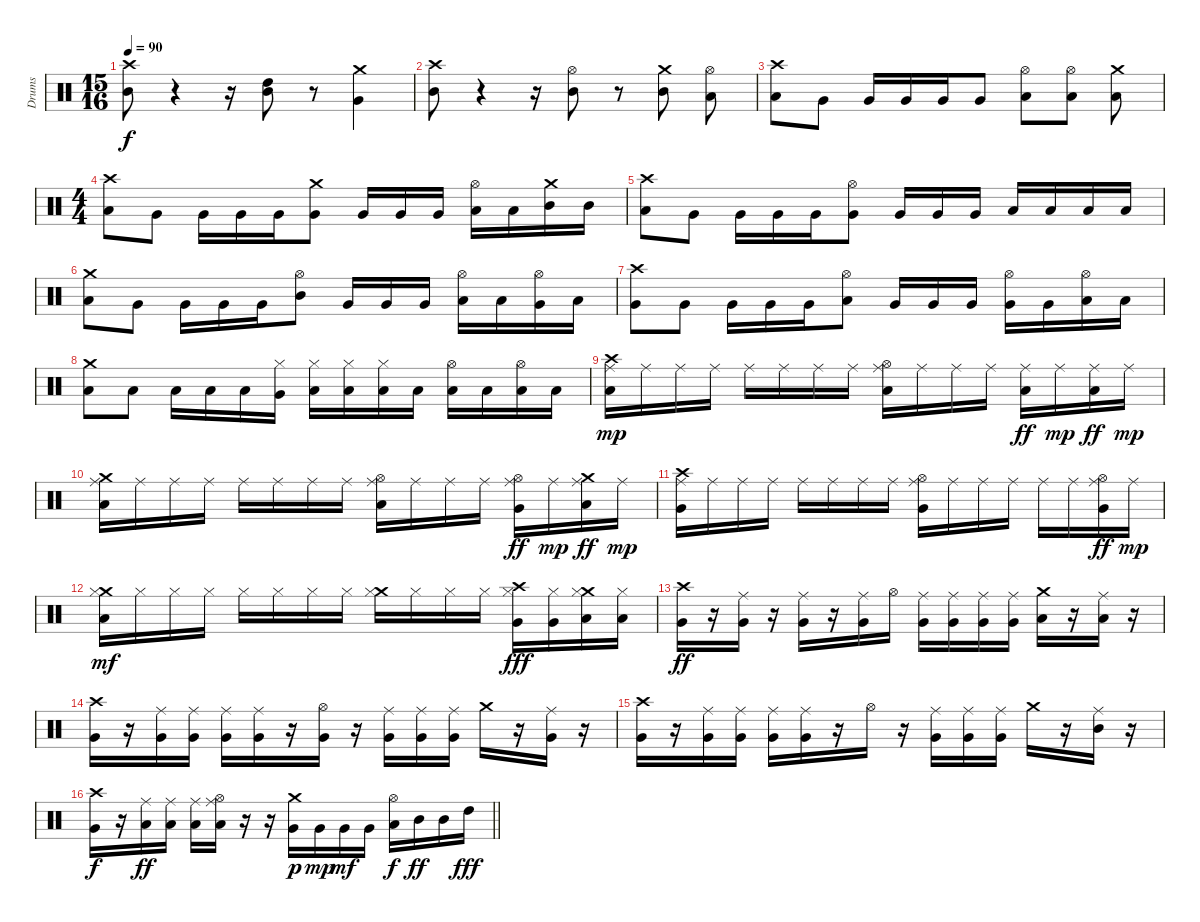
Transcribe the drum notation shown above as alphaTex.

\track ("Drums" "Drums") {instrument percussion}
\staff {score}
\articulation defaults
\ts (15 16)
\section ("" "")
\tempo 90
\clef neutral
\ks c
("Crash high (hit)" "Mid Tom (hit)").8{dy f} r.4 r.16 ("High Tom (hit)" "Mid Tom (hit)").8 r.8 ("Crash medium (hit)" "Very Low Tom (hit)").4 |
("Crash high (hit)" "Mid Tom (hit)").8 r.4 r.16 ("Hi-Hat (open)" "Mid Tom (hit)").8 r.8 ("Crash medium (hit)" "Mid Tom (hit)").8 ("Hi-Hat (open)" "Low Tom (hit)").8 |
("Crash high (hit)" "Low Tom (hit)").8 "Very Low Tom (hit)".8 "Very Low Tom (hit)".16 "Very Low Tom (hit)".16 "Very Low Tom (hit)".16 "Very Low Tom (hit)".8 ("Hi-Hat (open)" "Low Tom (hit)").8 ("Hi-Hat (open)" "Low Tom (hit)").8 ("Crash medium (hit)" "Low Tom (hit)").8 |
\ts (4 4)
("Crash high (hit)" "Low Tom (hit)").8 "Very Low Tom (hit)".8 "Very Low Tom (hit)".16 "Very Low Tom (hit)".16 "Very Low Tom (hit)".16 ("Crash medium (hit)" "Very Low Tom (hit)").8 "Very Low Tom (hit)".16 "Very Low Tom (hit)".16 "Very Low Tom (hit)".16 ("Hi-Hat (open)" "Low Tom (hit)").16 "Low Tom (hit)".16 ("Crash medium (hit)" "Mid Tom (hit)").16 "Mid Tom (hit)".16 |
("Crash high (hit)" "Low Tom (hit)").8 "Very Low Tom (hit)".8 "Very Low Tom (hit)".16 "Very Low Tom (hit)".16 "Very Low Tom (hit)".16 ("Hi-Hat (open)" "Very Low Tom (hit)").8 "Very Low Tom (hit)".16 "Very Low Tom (hit)".16 "Very Low Tom (hit)".16 "Low Tom (hit)".16 "Low Tom (hit)".16 "Low Tom (hit)".16 "Low Tom (hit)".16 |
("Crash medium (hit)" "Low Tom (hit)").8 "Very Low Tom (hit)".8 "Very Low Tom (hit)".16 "Very Low Tom (hit)".16 "Very Low Tom (hit)".16 ("Hi-Hat (open)" "Mid Tom (hit)").8 "Very Low Tom (hit)".16 "Very Low Tom (hit)".16 "Very Low Tom (hit)".16 ("Hi-Hat (open)" "Low Tom (hit)").16 "Low Tom (hit)".16 ("Hi-Hat (open)" "Very Low Tom (hit)").16 "Low Floor Tom (hit)".16 |
("Crash high (hit)" "Very Low Tom (hit)").8 "Very Low Tom (hit)".8 "Very Low Tom (hit)".16 "Very Low Tom (hit)".16 "Very Low Tom (hit)".16 ("Hi-Hat (open)" "Low Tom (hit)").8 "Very Low Tom (hit)".16 "Very Low Tom (hit)".16 "Very Low Tom (hit)".16 ("Hi-Hat (open)" "Very Low Tom (hit)").16 "Very Low Tom (hit)".16 ("Hi-Hat (open)" "Low Floor Tom (hit)").16 "Low Floor Tom (hit)".16 |
("Crash medium (hit)" "Low Floor Tom (hit)").8 "Low Floor Tom (hit)".8 "Low Floor Tom (hit)".16 "Low Floor Tom (hit)".16 "Low Floor Tom (hit)".16 ("Hi-Hat (closed)" "Very Low Tom (hit)").16 ("Hi-Hat (closed)" "Low Floor Tom (hit)").16 ("Hi-Hat (closed)" "Low Floor Tom (hit)").16 ("Hi-Hat (closed)" "Low Floor Tom (hit)").16 "Low Floor Tom (hit)".16 ("Hi-Hat (open)" "Low Floor Tom (hit)").16 "Low Floor Tom (hit)".16 ("Hi-Hat (open)" "Low Floor Tom (hit)").16 "Low Floor Tom (hit)".16 |
("Crash high (hit)" "Ride (middle)" "Low Tom (hit)").16{dy mp} "Ride (middle)".16 "Ride (middle)".16 "Ride (middle)".16 "Ride (middle)".16 "Ride (middle)".16 "Ride (middle)".16 "Ride (middle)".16 ("Hi-Hat (open)" "Ride (middle)" "Low Tom (hit)").16 "Ride (middle)".16 "Ride (middle)".16 "Ride (middle)".16 ("Ride (middle)" "Low Tom (hit)").16{dy ff} "Ride (middle)".16{dy mp} ("Ride (middle)" "Low Tom (hit)").16{dy ff} "Ride (middle)".16{dy mp} |
("Crash medium (hit)" "Ride (middle)" "Low Tom (hit)").16 "Ride (middle)".16 "Ride (middle)".16 "Ride (middle)".16 "Ride (middle)".16 "Ride (middle)".16 "Ride (middle)".16 "Ride (middle)".16 ("Hi-Hat (open)" "Ride (middle)" "Low Tom (hit)").16 "Ride (middle)".16 "Ride (middle)".16 "Ride (middle)".16 ("Hi-Hat (open)" "Ride (middle)" "Very Low Tom (hit)").16{dy ff} "Ride (middle)".16{dy mp} ("Crash medium (hit)" "Ride (middle)" "Low Floor Tom (hit)").16{dy ff} "Ride (middle)".16{dy mp} |
("Crash high (hit)" "Ride (middle)" "Very Low Tom (hit)").16 "Ride (middle)".16 "Ride (middle)".16 "Ride (middle)".16 "Ride (middle)".16 "Ride (middle)".16 "Ride (middle)".16 "Ride (middle)".16 ("Hi-Hat (open)" "Ride (middle)" "Very Low Tom (hit)").16 "Ride (middle)".16 "Ride (middle)".16 "Ride (middle)".16 "Ride (middle)".16 "Ride (middle)".16 ("Hi-Hat (open)" "Ride (middle)" "Very Low Tom (hit)").16{dy ff} "Ride (middle)".16{dy mp} |
("Crash medium (hit)" "Hi-Hat (closed)" "Low Floor Tom (hit)").16{dy mf} "Hi-Hat (closed)".16 "Hi-Hat (closed)".16 "Hi-Hat (closed)".16 "Hi-Hat (closed)".16 "Hi-Hat (closed)".16 "Hi-Hat (closed)".16 "Hi-Hat (closed)".16 ("Crash medium (hit)" "Hi-Hat (closed)").16 "Hi-Hat (closed)".16 "Hi-Hat (closed)".16 "Hi-Hat (closed)".16 ("Crash high (hit)" "Hi-Hat (closed)" "Very Low Tom (hit)").16{dy fff} ("Hi-Hat (closed)" "Very Low Tom (hit)").16 ("Crash medium (hit)" "Hi-Hat (closed)" "Low Floor Tom (hit)").16 ("Hi-Hat (closed)" "Low Floor Tom (hit)").16 |
("Crash high (hit)" "Very Low Tom (hit)").16{dy ff} r.16 ("Ride (middle)" "Very Low Tom (hit)").16 r.16 ("Ride (middle)" "Very Low Tom (hit)").16 r.16 ("Ride (middle)" "Very Low Tom (hit)").16 "Hi-Hat (open)".16 ("Ride (middle)" "Very Low Tom (hit)").16 ("Ride (middle)" "Very Low Tom (hit)").16 ("Ride (middle)" "Very Low Tom (hit)").16 ("Ride (middle)" "Very Low Tom (hit)").16 ("Crash medium (hit)" "Low Tom (hit)").16 r.16 ("Ride (middle)" "Low Tom (hit)").16 r.16 |
("Crash high (hit)" "Very Low Tom (hit)").16 r.16 ("Ride (middle)" "Very Low Tom (hit)").16 ("Ride (middle)" "Very Low Tom (hit)").16 ("Ride (middle)" "Very Low Tom (hit)").16 ("Ride (middle)" "Very Low Tom (hit)").16 r.16 ("Hi-Hat (open)" "Very Low Tom (hit)").16 r.16 ("Ride (middle)" "Very Low Tom (hit)").16 ("Ride (middle)" "Very Low Tom (hit)").16 ("Ride (middle)" "Very Low Tom (hit)").16 "Crash medium (hit)".16 r.16 ("Ride (middle)" "Very Low Tom (hit)").16 r.16 |
("Crash high (hit)" "Very Low Tom (hit)").16 r.16 ("Ride (middle)" "Very Low Tom (hit)").16 ("Ride (middle)" "Very Low Tom (hit)").16 ("Ride (middle)" "Very Low Tom (hit)").16 ("Ride (middle)" "Very Low Tom (hit)").16 r.16 "Hi-Hat (open)".16 r.16 ("Ride (middle)" "Very Low Tom (hit)").16 ("Ride (middle)" "Very Low Tom (hit)").16 ("Ride (middle)" "Very Low Tom (hit)").16 "Crash medium (hit)".16 r.16 ("Ride (middle)" "Mid Tom (hit)").16 r.16 |
\barLineRight lightlight
("Crash high (hit)" "Very Low Tom (hit)").16{dy f} r.16 ("Ride (middle)" "Low Tom (hit)").16{dy ff} ("Ride (middle)" "Low Tom (hit)").16 ("Ride (middle)" "Low Tom (hit)").16 ("Hi-Hat (open)" "Ride (middle)" "Low Tom (hit)").16 r.16 r.16 ("Crash medium (hit)" "Very Low Tom (hit)").16{dy p} "Very Low Tom (hit)".16{dy mp} "Very Low Tom (hit)".16{dy mf} "Very Low Tom (hit)".16 ("Hi-Hat (open)" "Low Tom (hit)").16{dy f} "Mid Tom (hit)".16{dy ff} "Mid Tom (hit)".16 "High Tom (hit)".16{dy fff}
